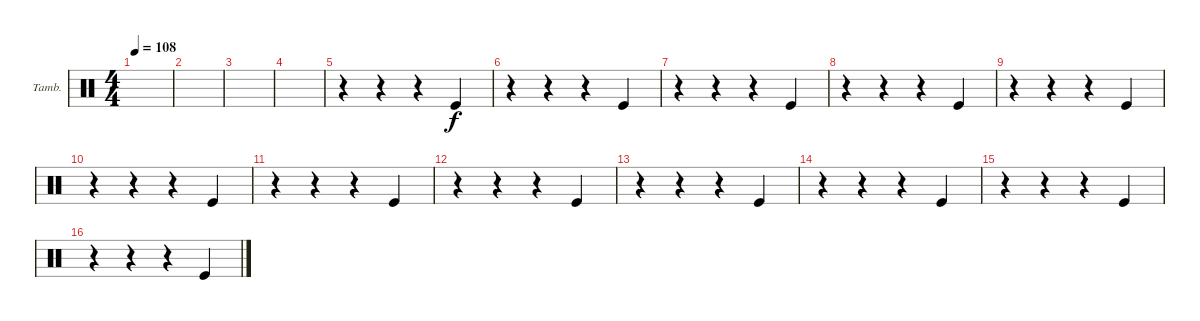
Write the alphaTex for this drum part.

\defaultSystemsLayout 4
\bracketExtendMode groupsimilarinstruments
\firstSystemTrackNameOrientation horizontal
\otherSystemsTrackNameOrientation horizontal
\track ("Tambourine" "Tamb.") {instrument percussion}
\staff {score}
\articulation defaults
\ts (4 4)
\tempo 108
\clef neutral
\ks c
|
|
|
|
r.4 r.4 r.4 "Kick (hit)".4 |
r.4 r.4 r.4 "Kick (hit)".4 |
r.4 r.4 r.4 "Kick (hit)".4 |
r.4 r.4 r.4 "Kick (hit)".4 |
r.4 r.4 r.4 "Kick (hit)".4 |
r.4 r.4 r.4 "Kick (hit)".4 |
r.4 r.4 r.4 "Kick (hit)".4 |
r.4 r.4 r.4 "Kick (hit)".4 |
r.4 r.4 r.4 "Kick (hit)".4 |
r.4 r.4 r.4 "Kick (hit)".4 |
r.4 r.4 r.4 "Kick (hit)".4 |
r.4 r.4 r.4 "Kick (hit)".4
